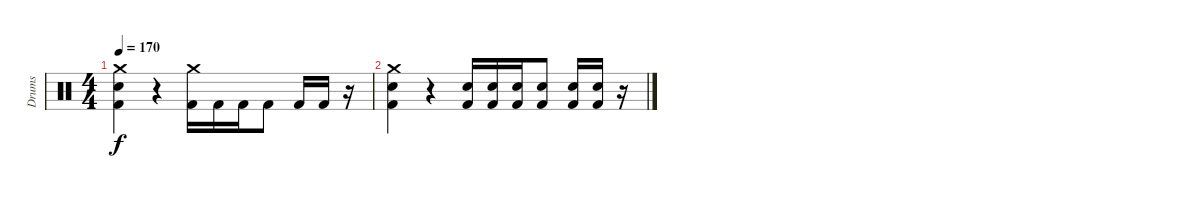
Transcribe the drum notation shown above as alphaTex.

\track ("Drums" "Drums") {instrument percussion}
\staff {score}
\articulation defaults
\ts (4 4)
\tempo 170
\clef neutral
\ks c
("Crash medium (hit)" "Electric Snare (hit)" "Kick (hit) 2").4{dy f} r.4 ("Crash medium (hit)" "Kick (hit) 2").16 "Kick (hit) 2".16 "Kick (hit) 2".16 "Kick (hit) 2".8 "Kick (hit) 2".16 "Kick (hit) 2".16 r.16 |
("Crash medium (hit)" "Electric Snare (hit)" "Kick (hit) 2").4 r.4 ("Electric Snare (hit)" "Kick (hit) 2").16 ("Electric Snare (hit)" "Kick (hit) 2").16 ("Electric Snare (hit)" "Kick (hit) 2").16 ("Electric Snare (hit)" "Kick (hit) 2").8 ("Electric Snare (hit)" "Kick (hit) 2").16 ("Electric Snare (hit)" "Kick (hit) 2").16 r.16
